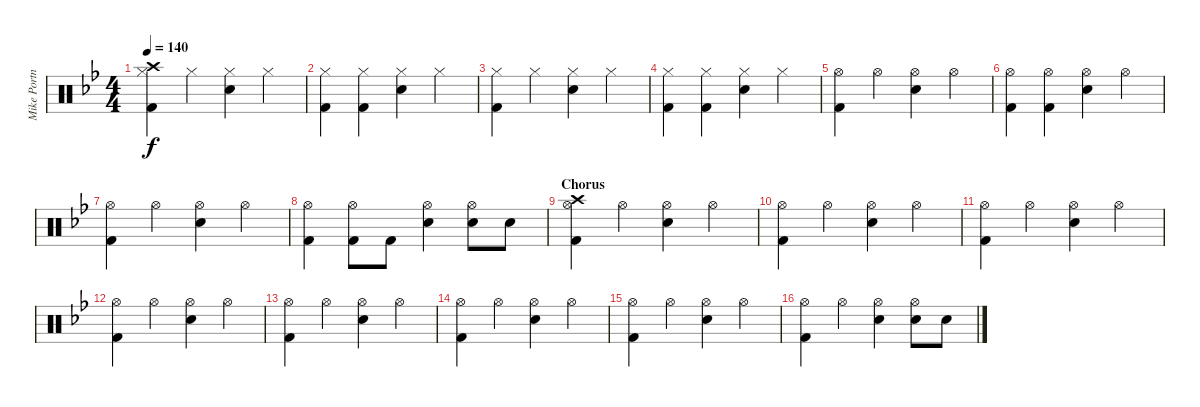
\track ("Mike Portnoy - Drums" "Mike Portn") {instrument percussion}
\staff {score}
\articulation defaults
\ts (4 4)
\section ("" "")
\tempo 140
\clef neutral
\ks bb
("Crash high (hit)" "Hi-Hat (closed)" "Kick (hit) 2").4{dy f} "Hi-Hat (closed)".4 ("Hi-Hat (closed)" "Snare (hit) 2").4 "Hi-Hat (closed)".4 |
("Hi-Hat (closed)" "Kick (hit) 2").4 ("Hi-Hat (closed)" "Kick (hit) 2").4 ("Hi-Hat (closed)" "Snare (hit) 2").4 "Hi-Hat (closed)".4 |
("Hi-Hat (closed)" "Kick (hit) 2").4 "Hi-Hat (closed)".4 ("Hi-Hat (closed)" "Snare (hit) 2").4 "Hi-Hat (closed)".4 |
("Hi-Hat (closed)" "Kick (hit) 2").4 ("Hi-Hat (closed)" "Kick (hit) 2").4 ("Hi-Hat (closed)" "Snare (hit) 2").4 "Hi-Hat (closed)".4 |
("Hi-Hat (open)" "Kick (hit) 2").4 "Hi-Hat (open)".4 ("Hi-Hat (open)" "Snare (hit) 2").4 "Hi-Hat (open)".4 |
("Hi-Hat (open)" "Kick (hit) 2").4 ("Hi-Hat (open)" "Kick (hit) 2").4 ("Hi-Hat (open)" "Snare (hit) 2").4 "Hi-Hat (open)".4 |
("Hi-Hat (open)" "Kick (hit) 2").4 "Hi-Hat (open)".4 ("Hi-Hat (open)" "Snare (hit) 2").4 "Hi-Hat (open)".4 |
("Hi-Hat (open)" "Kick (hit) 2").4 ("Hi-Hat (open)" "Kick (hit) 2").8 "Kick (hit) 2".8 ("Hi-Hat (open)" "Snare (hit) 2").4 ("Hi-Hat (open)" "Snare (hit) 2").8 "Snare (hit) 2".8 |
\section ("" "Chorus")
("Crash high (hit)" "Hi-Hat (open)" "Kick (hit) 2").4 "Hi-Hat (open)".4 ("Hi-Hat (open)" "Snare (hit) 2").4 "Hi-Hat (open)".4 |
("Hi-Hat (open)" "Kick (hit) 2").4 "Hi-Hat (open)".4 ("Hi-Hat (open)" "Snare (hit) 2").4 "Hi-Hat (open)".4 |
("Hi-Hat (open)" "Kick (hit) 2").4 "Hi-Hat (open)".4 ("Hi-Hat (open)" "Snare (hit) 2").4 "Hi-Hat (open)".4 |
("Hi-Hat (open)" "Kick (hit) 2").4 "Hi-Hat (open)".4 ("Hi-Hat (open)" "Snare (hit) 2").4 "Hi-Hat (open)".4 |
("Hi-Hat (open)" "Kick (hit) 2").4 "Hi-Hat (open)".4 ("Hi-Hat (open)" "Snare (hit) 2").4 "Hi-Hat (open)".4 |
("Hi-Hat (open)" "Kick (hit) 2").4 "Hi-Hat (open)".4 ("Hi-Hat (open)" "Snare (hit) 2").4 "Hi-Hat (open)".4 |
("Hi-Hat (open)" "Kick (hit) 2").4 "Hi-Hat (open)".4 ("Hi-Hat (open)" "Snare (hit) 2").4 "Hi-Hat (open)".4 |
("Hi-Hat (open)" "Kick (hit) 2").4 "Hi-Hat (open)".4 ("Hi-Hat (open)" "Snare (hit) 2").4 ("Hi-Hat (open)" "Snare (hit) 2").8 "Snare (hit) 2".8
